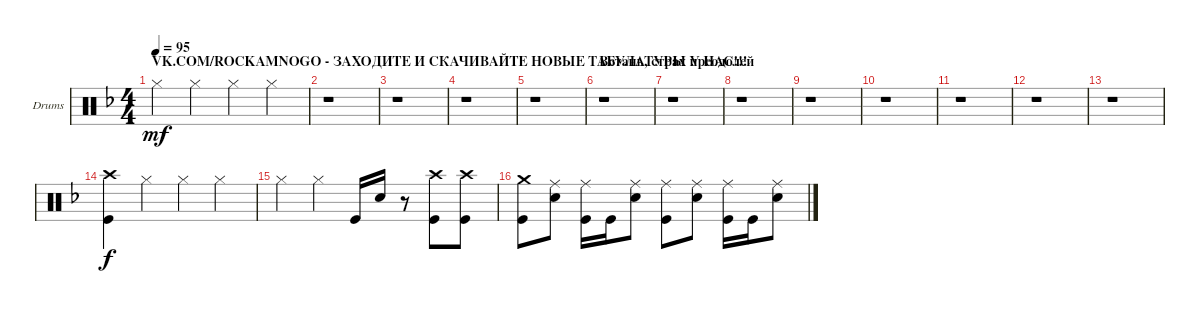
\bracketExtendMode groupsimilarinstruments
\firstSystemTrackNameOrientation horizontal
\otherSystemsTrackNameOrientation horizontal
\track ("Александр Манякин" "Drums") {instrument percussion}
\staff {score}
\articulation defaults
\ts (4 4)
\section ("" "VK.COM/ROCKAMNOGO - ЗАХОДИТЕ И СКАЧИВАЙТЕ НОВЫЕ ТАБУЛАТУРЫ У НАС!!!")
\tempo 95
\clef neutral
\ks f "Hi-Hat (closed)".4{dy mf} "Hi-Hat (closed)".4 "Hi-Hat (closed)".4 "Hi-Hat (closed)".4
|
r.1 |
r.1 |
r.1 |
r.1 |
\section ("" "Встань, страх преодолей")
r.1 |
r.1 |
r.1 |
r.1 |
r.1 |
r.1 |
r.1 |
r.1 |
("Kick (hit)" "Crash high (hit)").4{dy f} "Hi-Hat (closed)".4 "Hi-Hat (closed)".4 "Hi-Hat (closed)".4 |
"Hi-Hat (closed)".4 "Hi-Hat (closed)".4 "Kick (hit)".16 "Snare (hit) 2".16 r.8 ("Kick (hit)" "Crash high (hit)").8 ("Kick (hit)" "Crash high (hit)").8 |
("Kick (hit)" "Crash medium (hit)").8 ("Snare (hit) 2" "Ride (middle)").8 ("Kick (hit)" "Ride (middle)").16 "Kick (hit)".16 ("Snare (hit) 2" "Ride (middle)").8 ("Kick (hit)" "Ride (middle)").8 ("Snare (hit) 2" "Ride (middle)").8 ("Kick (hit)" "Ride (middle)").16 "Kick (hit)".16 ("Snare (hit) 2" "Ride (middle)").8
